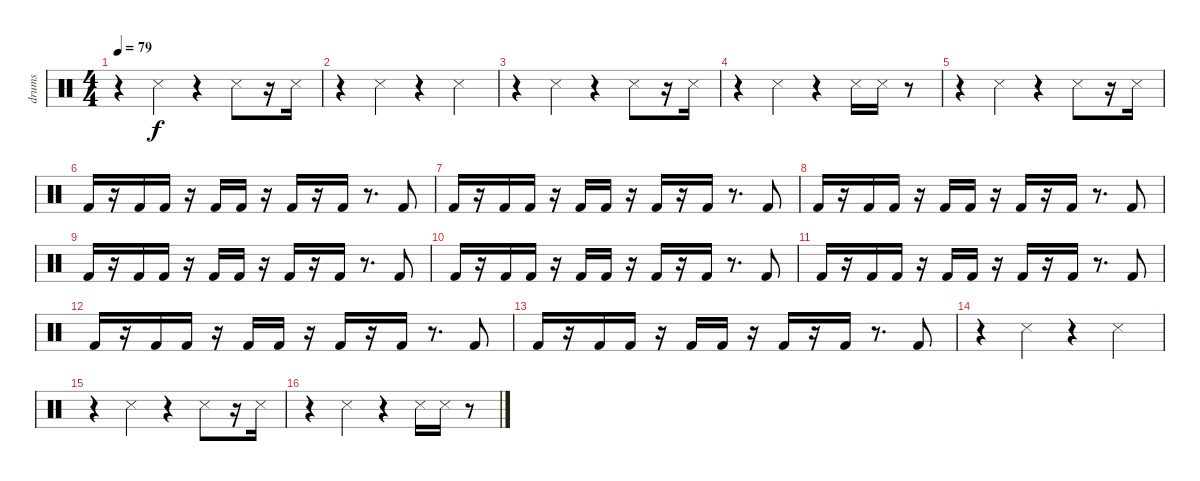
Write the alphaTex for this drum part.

\track ("drums" "drums") {instrument percussion}
\staff {score}
\articulation defaults
\ts (4 4)
\tempo 79
\clef neutral
\ks c
r.4{dy f} "Snare (side stick) 3".4 r.4 "Snare (side stick) 3".8 r.16 "Snare (side stick) 3".16 |
r.4 "Snare (side stick) 3".4 r.4 "Snare (side stick) 3".4 |
r.4 "Snare (side stick) 3".4 r.4 "Snare (side stick) 3".8 r.16 "Snare (side stick) 3".16 |
r.4 "Snare (side stick) 3".4 r.4 "Snare (side stick) 3".16 "Snare (side stick) 3".16 r.8 |
r.4 "Snare (side stick) 3".4 r.4 "Snare (side stick) 3".8 r.16 "Snare (side stick) 3".16 |
"Kick (hit) 2".16 r.16 "Kick (hit) 2".16 "Kick (hit) 2".16 r.16 "Kick (hit) 2".16 "Kick (hit) 2".16 r.16 "Kick (hit) 2".16 r.16 "Kick (hit) 2".16 r.8{d} "Kick (hit) 2".8 |
"Kick (hit) 2".16 r.16 "Kick (hit) 2".16 "Kick (hit) 2".16 r.16 "Kick (hit) 2".16 "Kick (hit) 2".16 r.16 "Kick (hit) 2".16 r.16 "Kick (hit) 2".16 r.8{d} "Kick (hit) 2".8 |
"Kick (hit) 2".16 r.16 "Kick (hit) 2".16 "Kick (hit) 2".16 r.16 "Kick (hit) 2".16 "Kick (hit) 2".16 r.16 "Kick (hit) 2".16 r.16 "Kick (hit) 2".16 r.8{d} "Kick (hit) 2".8 |
"Kick (hit) 2".16 r.16 "Kick (hit) 2".16 "Kick (hit) 2".16 r.16 "Kick (hit) 2".16 "Kick (hit) 2".16 r.16 "Kick (hit) 2".16 r.16 "Kick (hit) 2".16 r.8{d} "Kick (hit) 2".8 |
"Kick (hit) 2".16 r.16 "Kick (hit) 2".16 "Kick (hit) 2".16 r.16 "Kick (hit) 2".16 "Kick (hit) 2".16 r.16 "Kick (hit) 2".16 r.16 "Kick (hit) 2".16 r.8{d} "Kick (hit) 2".8 |
"Kick (hit) 2".16 r.16 "Kick (hit) 2".16 "Kick (hit) 2".16 r.16 "Kick (hit) 2".16 "Kick (hit) 2".16 r.16 "Kick (hit) 2".16 r.16 "Kick (hit) 2".16 r.8{d} "Kick (hit) 2".8 |
"Kick (hit) 2".16 r.16 "Kick (hit) 2".16 "Kick (hit) 2".16 r.16 "Kick (hit) 2".16 "Kick (hit) 2".16 r.16 "Kick (hit) 2".16 r.16 "Kick (hit) 2".16 r.8{d} "Kick (hit) 2".8 |
"Kick (hit) 2".16 r.16 "Kick (hit) 2".16 "Kick (hit) 2".16 r.16 "Kick (hit) 2".16 "Kick (hit) 2".16 r.16 "Kick (hit) 2".16 r.16 "Kick (hit) 2".16 r.8{d} "Kick (hit) 2".8 |
r.4 "Snare (side stick) 3".4 r.4 "Snare (side stick) 3".4 |
r.4 "Snare (side stick) 3".4 r.4 "Snare (side stick) 3".8 r.16 "Snare (side stick) 3".16 |
r.4 "Snare (side stick) 3".4 r.4 "Snare (side stick) 3".16 "Snare (side stick) 3".16 r.8
